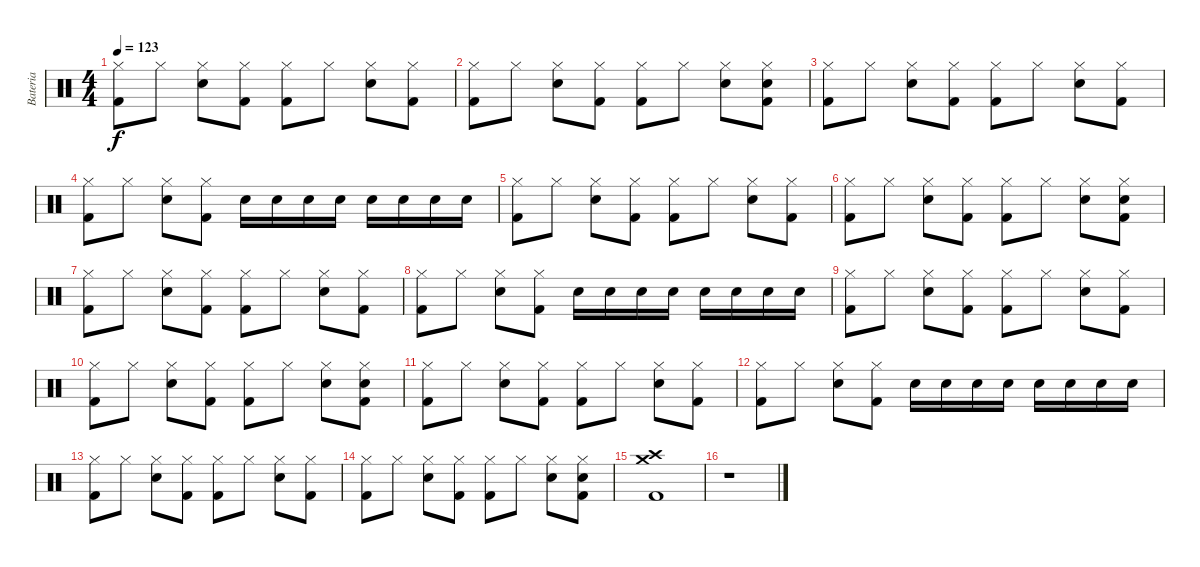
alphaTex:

\track ("Bateria" "Bateria") {instrument percussion}
\staff {score}
\articulation defaults
\ts (4 4)
\tempo 123
\clef neutral
\ks c
("Hi-Hat (closed)" "Kick (hit) 2").8{dy f} "Hi-Hat (closed)".8 ("Hi-Hat (closed)" "Snare (hit) 2").8 ("Hi-Hat (closed)" "Kick (hit) 2").8 ("Hi-Hat (closed)" "Kick (hit) 2").8 "Hi-Hat (closed)".8 ("Hi-Hat (closed)" "Snare (hit) 2").8 ("Hi-Hat (closed)" "Kick (hit) 2").8 |
("Hi-Hat (closed)" "Kick (hit) 2").8 "Hi-Hat (closed)".8 ("Hi-Hat (closed)" "Snare (hit) 2").8 ("Hi-Hat (closed)" "Kick (hit) 2").8 ("Hi-Hat (closed)" "Kick (hit) 2").8 "Hi-Hat (closed)".8 ("Hi-Hat (closed)" "Snare (hit) 2").8 ("Hi-Hat (closed)" "Snare (hit) 2" "Kick (hit) 2").8 |
("Hi-Hat (closed)" "Kick (hit) 2").8 "Hi-Hat (closed)".8 ("Hi-Hat (closed)" "Snare (hit) 2").8 ("Hi-Hat (closed)" "Kick (hit) 2").8 ("Hi-Hat (closed)" "Kick (hit) 2").8 "Hi-Hat (closed)".8 ("Hi-Hat (closed)" "Snare (hit) 2").8 ("Hi-Hat (closed)" "Kick (hit) 2").8 |
("Hi-Hat (closed)" "Kick (hit) 2").8 "Hi-Hat (closed)".8 ("Hi-Hat (closed)" "Snare (hit) 2").8 ("Hi-Hat (closed)" "Kick (hit) 2").8 "Snare (hit) 2".16 "Snare (hit) 2".16 "Snare (hit) 2".16 "Snare (hit) 2".16 "Snare (hit) 2".16 "Snare (hit) 2".16 "Snare (hit) 2".16 "Snare (hit) 2".16 |
("Hi-Hat (closed)" "Kick (hit) 2").8 "Hi-Hat (closed)".8 ("Hi-Hat (closed)" "Snare (hit) 2").8 ("Hi-Hat (closed)" "Kick (hit) 2").8 ("Hi-Hat (closed)" "Kick (hit) 2").8 "Hi-Hat (closed)".8 ("Hi-Hat (closed)" "Snare (hit) 2").8 ("Hi-Hat (closed)" "Kick (hit) 2").8 |
("Hi-Hat (closed)" "Kick (hit) 2").8 "Hi-Hat (closed)".8 ("Hi-Hat (closed)" "Snare (hit) 2").8 ("Hi-Hat (closed)" "Kick (hit) 2").8 ("Hi-Hat (closed)" "Kick (hit) 2").8 "Hi-Hat (closed)".8 ("Hi-Hat (closed)" "Snare (hit) 2").8 ("Hi-Hat (closed)" "Snare (hit) 2" "Kick (hit) 2").8 |
("Hi-Hat (closed)" "Kick (hit) 2").8 "Hi-Hat (closed)".8 ("Hi-Hat (closed)" "Snare (hit) 2").8 ("Hi-Hat (closed)" "Kick (hit) 2").8 ("Hi-Hat (closed)" "Kick (hit) 2").8 "Hi-Hat (closed)".8 ("Hi-Hat (closed)" "Snare (hit) 2").8 ("Hi-Hat (closed)" "Kick (hit) 2").8 |
("Hi-Hat (closed)" "Kick (hit) 2").8 "Hi-Hat (closed)".8 ("Hi-Hat (closed)" "Snare (hit) 2").8 ("Hi-Hat (closed)" "Kick (hit) 2").8 "Snare (hit) 2".16 "Snare (hit) 2".16 "Snare (hit) 2".16 "Snare (hit) 2".16 "Snare (hit) 2".16 "Snare (hit) 2".16 "Snare (hit) 2".16 "Snare (hit) 2".16 |
("Hi-Hat (closed)" "Kick (hit) 2").8 "Hi-Hat (closed)".8 ("Hi-Hat (closed)" "Snare (hit) 2").8 ("Hi-Hat (closed)" "Kick (hit) 2").8 ("Hi-Hat (closed)" "Kick (hit) 2").8 "Hi-Hat (closed)".8 ("Hi-Hat (closed)" "Snare (hit) 2").8 ("Hi-Hat (closed)" "Kick (hit) 2").8 |
("Hi-Hat (closed)" "Kick (hit) 2").8 "Hi-Hat (closed)".8 ("Hi-Hat (closed)" "Snare (hit) 2").8 ("Hi-Hat (closed)" "Kick (hit) 2").8 ("Hi-Hat (closed)" "Kick (hit) 2").8 "Hi-Hat (closed)".8 ("Hi-Hat (closed)" "Snare (hit) 2").8 ("Hi-Hat (closed)" "Snare (hit) 2" "Kick (hit) 2").8 |
("Hi-Hat (closed)" "Kick (hit) 2").8 "Hi-Hat (closed)".8 ("Hi-Hat (closed)" "Snare (hit) 2").8 ("Hi-Hat (closed)" "Kick (hit) 2").8 ("Hi-Hat (closed)" "Kick (hit) 2").8 "Hi-Hat (closed)".8 ("Hi-Hat (closed)" "Snare (hit) 2").8 ("Hi-Hat (closed)" "Kick (hit) 2").8 |
("Hi-Hat (closed)" "Kick (hit) 2").8 "Hi-Hat (closed)".8 ("Hi-Hat (closed)" "Snare (hit) 2").8 ("Hi-Hat (closed)" "Kick (hit) 2").8 "Snare (hit) 2".16 "Snare (hit) 2".16 "Snare (hit) 2".16 "Snare (hit) 2".16 "Snare (hit) 2".16 "Snare (hit) 2".16 "Snare (hit) 2".16 "Snare (hit) 2".16 |
("Hi-Hat (closed)" "Kick (hit) 2").8 "Hi-Hat (closed)".8 ("Hi-Hat (closed)" "Snare (hit) 2").8 ("Hi-Hat (closed)" "Kick (hit) 2").8 ("Hi-Hat (closed)" "Kick (hit) 2").8 "Hi-Hat (closed)".8 ("Hi-Hat (closed)" "Snare (hit) 2").8 ("Hi-Hat (closed)" "Kick (hit) 2").8 |
("Hi-Hat (closed)" "Kick (hit) 2").8 "Hi-Hat (closed)".8 ("Hi-Hat (closed)" "Snare (hit) 2").8 ("Hi-Hat (closed)" "Kick (hit) 2").8 ("Hi-Hat (closed)" "Kick (hit) 2").8 "Hi-Hat (closed)".8 ("Hi-Hat (closed)" "Snare (hit) 2").8 ("Hi-Hat (closed)" "Snare (hit) 2" "Kick (hit) 2").8 |
("Crash medium (hit)" "Crash high (hit)" "Kick (hit) 2").1 |
r.1
